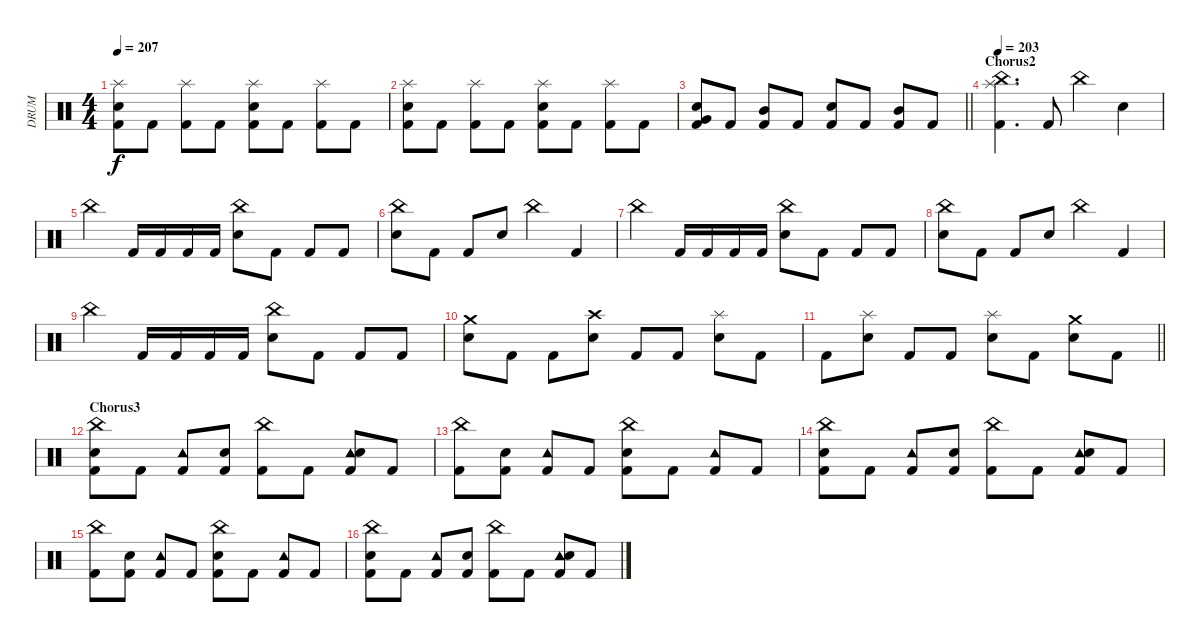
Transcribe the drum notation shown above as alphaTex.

\track ("DRUM" "DRUM") {instrument percussion bank 102}
\staff {score}
\articulation defaults
\ts (4 4)
\tempo 207
\clef neutral
\ks c
("Splash (hit)" "Electric Snare (hit)" "Kick (hit) 2").8{dy f} "Kick (hit) 2".8 ("Splash (hit)" "Kick (hit) 2").8 "Kick (hit) 2".8 ("Splash (hit)" "Electric Snare (hit)" "Kick (hit) 2").8 "Kick (hit) 2".8 ("Splash (hit)" "Kick (hit) 2").8 "Kick (hit) 2".8 |
("Splash (hit)" "Electric Snare (hit)" "Kick (hit) 2").8 "Kick (hit) 2".8 ("Splash (hit)" "Kick (hit) 2").8 "Kick (hit) 2".8 ("Splash (hit)" "Electric Snare (hit)" "Kick (hit) 2").8 "Kick (hit) 2".8 ("Splash (hit)" "Kick (hit) 2").8 "Kick (hit) 2".8 |
\barLineRight lightlight
("Electric Snare (hit)" "Very Low Tom (hit)" "Kick (hit) 2").8 "Kick (hit) 2".8 ("Mid Tom (hit)" "Kick (hit) 2").8 "Kick (hit) 2".8 ("Electric Snare (hit)" "Kick (hit) 2").8 "Kick (hit) 2".8 ("Mid Tom (hit)" "Kick (hit) 2").8 "Kick (hit) 2".8 |
\section ("" "Chorus2")
\tempo 203
("China (hit)" "Splash (hit)" "Kick (hit) 2").4{d} "Kick (hit) 2".8 "China (hit)".4 "Electric Snare (hit)".4 |
"China (hit)".4 "Kick (hit) 2".16 "Kick (hit) 2".16 "Kick (hit) 2".16 "Kick (hit) 2".16 ("China (hit)" "Electric Snare (hit)").8 "Kick (hit) 2".8 "Kick (hit) 2".8 "Kick (hit) 2".8 |
("China (hit)" "Electric Snare (hit)").8 "Kick (hit) 2".8 "Kick (hit) 2".8 "Electric Snare (hit)".8 "China (hit)".4 "Kick (hit) 2".4 |
"China (hit)".4 "Kick (hit) 2".16 "Kick (hit) 2".16 "Kick (hit) 2".16 "Kick (hit) 2".16 ("China (hit)" "Electric Snare (hit)").8 "Kick (hit) 2".8 "Kick (hit) 2".8 "Kick (hit) 2".8 |
("China (hit)" "Electric Snare (hit)").8 "Kick (hit) 2".8 "Kick (hit) 2".8 "Electric Snare (hit)".8 "China (hit)".4 "Kick (hit) 2".4 |
"China (hit)".4 "Kick (hit) 2".16 "Kick (hit) 2".16 "Kick (hit) 2".16 "Kick (hit) 2".16 ("China (hit)" "Electric Snare (hit)").8 "Kick (hit) 2".8 "Kick (hit) 2".8 "Kick (hit) 2".8 |
("Crash medium (hit)" "Electric Snare (hit)").8 "Kick (hit) 2".8 "Kick (hit) 2".8 ("Crash high (hit)" "Electric Snare (hit)").8 "Kick (hit) 2".8 "Kick (hit) 2".8 ("Splash (hit)" "Electric Snare (hit)").8 "Kick (hit) 2".8 |
\barLineRight lightlight "Kick (hit) 2".8
("Splash (hit)" "Electric Snare (hit)").8 "Kick (hit) 2".8 "Kick (hit) 2".8 ("Splash (hit)" "Electric Snare (hit)").8 "Kick (hit) 2".8 ("Crash medium (hit)" "Electric Snare (hit)").8 "Kick (hit) 2".8 |
\section ("" "Chorus3")
("China (hit)" "Electric Snare (hit)" "Kick (hit) 2").8 "Kick (hit) 2".8 ("Tambourine (hit)" "Kick (hit) 2").8 ("Electric Snare (hit)" "Kick (hit) 2").8 ("China (hit)" "Kick (hit) 2").8 "Kick (hit) 2".8 ("Tambourine (hit)" "Electric Snare (hit)" "Kick (hit) 2").8 "Kick (hit) 2".8 |
("China (hit)" "Kick (hit) 2").8 ("Electric Snare (hit)" "Kick (hit) 2").8 ("Tambourine (hit)" "Kick (hit) 2").8 "Kick (hit) 2".8 ("China (hit)" "Electric Snare (hit)" "Kick (hit) 2").8 "Kick (hit) 2".8 ("Tambourine (hit)" "Kick (hit) 2").8 "Kick (hit) 2".8 |
("China (hit)" "Electric Snare (hit)" "Kick (hit) 2").8 "Kick (hit) 2".8 ("Tambourine (hit)" "Kick (hit) 2").8 ("Electric Snare (hit)" "Kick (hit) 2").8 ("China (hit)" "Kick (hit) 2").8 "Kick (hit) 2".8 ("Tambourine (hit)" "Electric Snare (hit)" "Kick (hit) 2").8 "Kick (hit) 2".8 |
("China (hit)" "Kick (hit) 2").8 ("Electric Snare (hit)" "Kick (hit) 2").8 ("Tambourine (hit)" "Kick (hit) 2").8 "Kick (hit) 2".8 ("China (hit)" "Electric Snare (hit)" "Kick (hit) 2").8 "Kick (hit) 2".8 ("Tambourine (hit)" "Kick (hit) 2").8 "Kick (hit) 2".8 |
("China (hit)" "Electric Snare (hit)" "Kick (hit) 2").8 "Kick (hit) 2".8 ("Tambourine (hit)" "Kick (hit) 2").8 ("Electric Snare (hit)" "Kick (hit) 2").8 ("China (hit)" "Kick (hit) 2").8 "Kick (hit) 2".8 ("Tambourine (hit)" "Electric Snare (hit)" "Kick (hit) 2").8 "Kick (hit) 2".8
